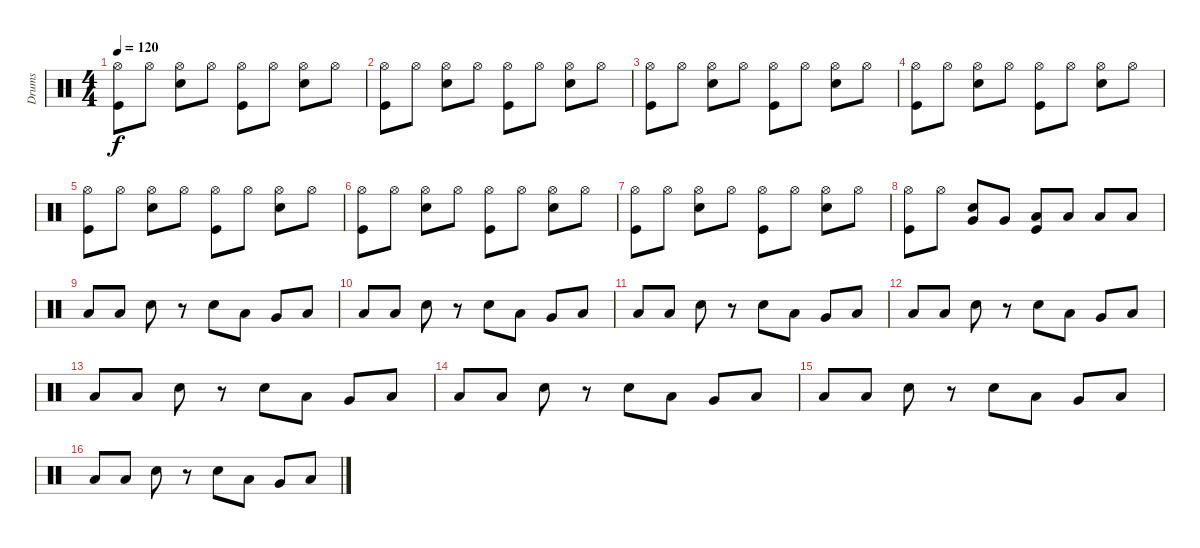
\track ("Drums" "Drums") {instrument percussion}
\staff {score}
\articulation defaults
\ts (4 4)
\tempo 120
\clef neutral
\ks c
("Hi-Hat (open)" "Kick (hit)").8{dy f} "Hi-Hat (open)".8 ("Hi-Hat (open)" "Electric Snare (hit)").8 "Hi-Hat (open)".8 ("Hi-Hat (open)" "Kick (hit)").8 "Hi-Hat (open)".8 ("Hi-Hat (open)" "Electric Snare (hit)").8 "Hi-Hat (open)".8 |
("Hi-Hat (open)" "Kick (hit)").8 "Hi-Hat (open)".8 ("Hi-Hat (open)" "Electric Snare (hit)").8 "Hi-Hat (open)".8 ("Hi-Hat (open)" "Kick (hit)").8 "Hi-Hat (open)".8 ("Hi-Hat (open)" "Electric Snare (hit)").8 "Hi-Hat (open)".8 |
("Hi-Hat (open)" "Kick (hit)").8 "Hi-Hat (open)".8 ("Hi-Hat (open)" "Electric Snare (hit)").8 "Hi-Hat (open)".8 ("Hi-Hat (open)" "Kick (hit)").8 "Hi-Hat (open)".8 ("Hi-Hat (open)" "Electric Snare (hit)").8 "Hi-Hat (open)".8 |
("Hi-Hat (open)" "Kick (hit)").8 "Hi-Hat (open)".8 ("Hi-Hat (open)" "Electric Snare (hit)").8 "Hi-Hat (open)".8 ("Hi-Hat (open)" "Kick (hit)").8 "Hi-Hat (open)".8 ("Hi-Hat (open)" "Electric Snare (hit)").8 "Hi-Hat (open)".8 |
("Hi-Hat (open)" "Kick (hit)").8 "Hi-Hat (open)".8 ("Hi-Hat (open)" "Electric Snare (hit)").8 "Hi-Hat (open)".8 ("Hi-Hat (open)" "Kick (hit)").8 "Hi-Hat (open)".8 ("Hi-Hat (open)" "Electric Snare (hit)").8 "Hi-Hat (open)".8 |
("Hi-Hat (open)" "Kick (hit)").8 "Hi-Hat (open)".8 ("Hi-Hat (open)" "Electric Snare (hit)").8 "Hi-Hat (open)".8 ("Hi-Hat (open)" "Kick (hit)").8 "Hi-Hat (open)".8 ("Hi-Hat (open)" "Electric Snare (hit)").8 "Hi-Hat (open)".8 |
("Hi-Hat (open)" "Kick (hit)").8 "Hi-Hat (open)".8 ("Hi-Hat (open)" "Electric Snare (hit)").8 "Hi-Hat (open)".8 ("Hi-Hat (open)" "Kick (hit)").8 "Hi-Hat (open)".8 ("Hi-Hat (open)" "Electric Snare (hit)").8 "Hi-Hat (open)".8 |
("Hi-Hat (open)" "Kick (hit)").8 "Hi-Hat (open)".8 ("Very Low Tom (hit)" "Electric Snare (hit)").8 "Very Low Tom (hit)".8 ("Low Tom (hit)" "Kick (hit)").8 "Low Floor Tom (hit)".8 "Low Tom (hit)".8 "Low Floor Tom (hit)".8 |
"Low Tom (hit)".8 "Low Tom (hit)".8 "Electric Snare (hit)".8 r.8 "Electric Snare (hit)".8 "Low Tom (hit)".8 "Very Low Tom (hit)".8 "Low Floor Tom (hit)".8 |
"Low Tom (hit)".8 "Low Tom (hit)".8 "Electric Snare (hit)".8 r.8 "Electric Snare (hit)".8 "Low Tom (hit)".8 "Very Low Tom (hit)".8 "Low Floor Tom (hit)".8 |
"Low Tom (hit)".8 "Low Tom (hit)".8 "Electric Snare (hit)".8 r.8 "Electric Snare (hit)".8 "Low Tom (hit)".8 "Very Low Tom (hit)".8 "Low Floor Tom (hit)".8 |
"Low Tom (hit)".8 "Low Tom (hit)".8 "Electric Snare (hit)".8 r.8 "Electric Snare (hit)".8 "Low Tom (hit)".8 "Very Low Tom (hit)".8 "Low Floor Tom (hit)".8 |
"Low Tom (hit)".8 "Low Tom (hit)".8 "Electric Snare (hit)".8 r.8 "Electric Snare (hit)".8 "Low Tom (hit)".8 "Very Low Tom (hit)".8 "Low Floor Tom (hit)".8 |
"Low Tom (hit)".8 "Low Tom (hit)".8 "Electric Snare (hit)".8 r.8 "Electric Snare (hit)".8 "Low Tom (hit)".8 "Very Low Tom (hit)".8 "Low Floor Tom (hit)".8 |
"Low Tom (hit)".8 "Low Tom (hit)".8 "Electric Snare (hit)".8 r.8 "Electric Snare (hit)".8 "Low Tom (hit)".8 "Very Low Tom (hit)".8 "Low Floor Tom (hit)".8 |
"Low Tom (hit)".8 "Low Tom (hit)".8 "Electric Snare (hit)".8 r.8 "Electric Snare (hit)".8 "Low Tom (hit)".8 "Very Low Tom (hit)".8 "Low Floor Tom (hit)".8
